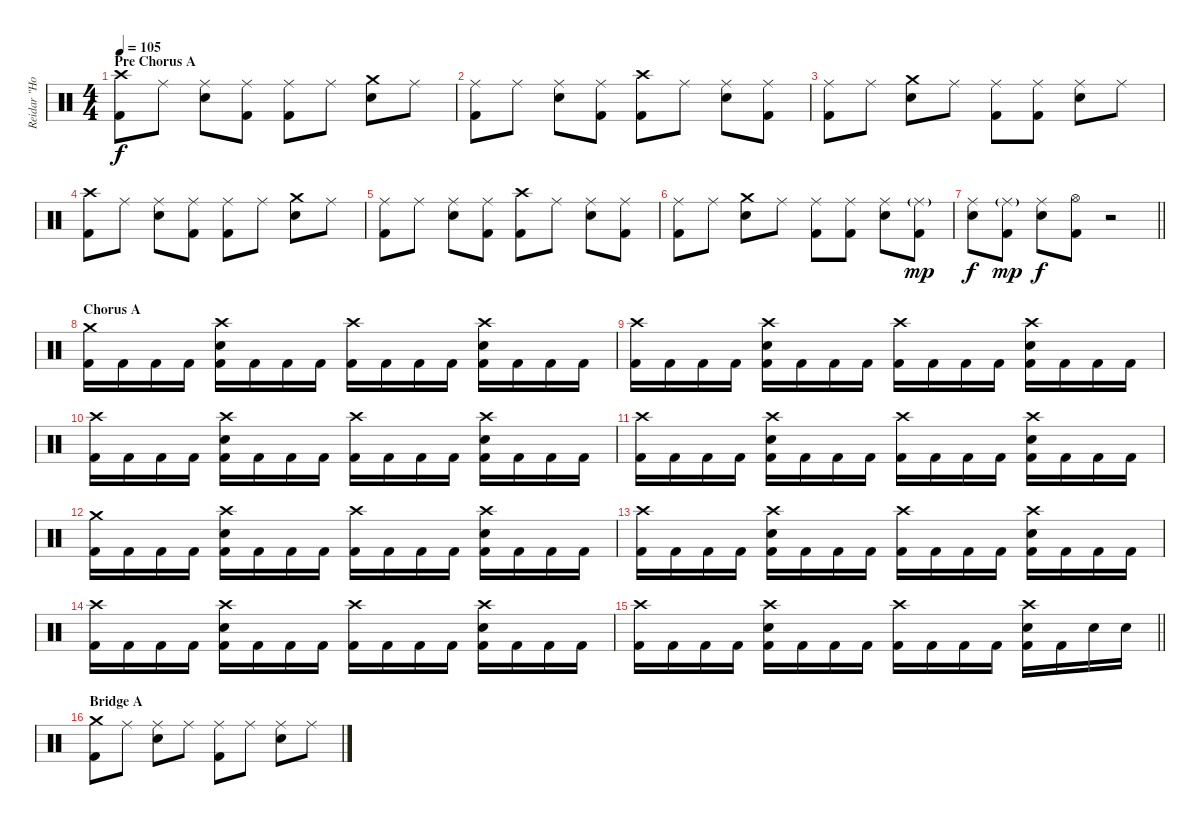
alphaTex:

\track ("Reidar \"Horgh\" Horghagen " "Reidar \"Ho") {instrument percussion}
\staff {score}
\articulation defaults
\ts (4 4)
\section ("" "Pre Chorus A")
\tempo 105
\clef neutral
\ks c
("Crash high (hit)" "Kick (hit) 2").8{dy f} "Ride (middle)".8 ("Ride (middle)" "Snare (hit) 2").8 ("Ride (middle)" "Kick (hit) 2").8 ("Ride (middle)" "Kick (hit) 2").8 "Ride (middle)".8 ("Crash medium (hit)" "Snare (hit) 2").8 "Ride (middle)".8 |
("Ride (middle)" "Kick (hit) 2").8 "Ride (middle)".8 ("Ride (middle)" "Snare (hit) 2").8 ("Ride (middle)" "Kick (hit) 2").8 ("Crash high (hit)" "Kick (hit) 2").8 "Ride (middle)".8 ("Ride (middle)" "Snare (hit) 2").8 ("Ride (middle)" "Kick (hit) 2").8 |
("Ride (middle)" "Kick (hit) 2").8 "Ride (middle)".8 ("Crash medium (hit)" "Snare (hit) 2").8 "Ride (middle)".8 ("Ride (middle)" "Kick (hit) 2").8 ("Ride (middle)" "Kick (hit) 2").8 ("Ride (middle)" "Snare (hit) 2").8 "Ride (middle)".8 |
("Crash high (hit)" "Kick (hit) 2").8 "Ride (middle)".8 ("Ride (middle)" "Snare (hit) 2").8 ("Ride (middle)" "Kick (hit) 2").8 ("Ride (middle)" "Kick (hit) 2").8 "Ride (middle)".8 ("Crash medium (hit)" "Snare (hit) 2").8 "Ride (middle)".8 |
("Ride (middle)" "Kick (hit) 2").8 "Ride (middle)".8 ("Ride (middle)" "Snare (hit) 2").8 ("Ride (middle)" "Kick (hit) 2").8 ("Crash high (hit)" "Kick (hit) 2").8 "Ride (middle)".8 ("Ride (middle)" "Snare (hit) 2").8 ("Ride (middle)" "Kick (hit) 2").8 |
("Ride (middle)" "Kick (hit) 2").8 "Ride (middle)".8 ("Crash medium (hit)" "Snare (hit) 2").8 "Ride (middle)".8 ("Ride (middle)" "Kick (hit) 2").8 ("Ride (middle)" "Kick (hit) 2").8 ("Ride (middle)" "Snare (hit) 2").8 ("Ride (middle)"{g} "Kick (hit) 2").8{dy mp} |
\barLineRight lightlight
("Ride (middle)" "Snare (hit) 2").8{dy f} ("Ride (middle)"{g} "Kick (hit) 2").8{dy mp} ("Ride (middle)" "Snare (hit) 2").8{dy f} ("Hi-Hat (open)" "Kick (hit) 2").8 r.2 |
\section ("" "Chorus A")
("Crash medium (hit)" "Kick (hit) 2").16 "Kick (hit) 2".16 "Kick (hit) 2".16 "Kick (hit) 2".16 ("Crash high (hit)" "Snare (hit) 2" "Kick (hit) 2").16 "Kick (hit) 2".16 "Kick (hit) 2".16 "Kick (hit) 2".16 ("Crash high (hit)" "Kick (hit) 2").16 "Kick (hit) 2".16 "Kick (hit) 2".16 "Kick (hit) 2".16 ("Crash high (hit)" "Snare (hit) 2" "Kick (hit) 2").16 "Kick (hit) 2".16 "Kick (hit) 2".16 "Kick (hit) 2".16 |
("Crash high (hit)" "Kick (hit) 2").16 "Kick (hit) 2".16 "Kick (hit) 2".16 "Kick (hit) 2".16 ("Crash high (hit)" "Snare (hit) 2" "Kick (hit) 2").16 "Kick (hit) 2".16 "Kick (hit) 2".16 "Kick (hit) 2".16 ("Crash high (hit)" "Kick (hit) 2").16 "Kick (hit) 2".16 "Kick (hit) 2".16 "Kick (hit) 2".16 ("Crash high (hit)" "Snare (hit) 2" "Kick (hit) 2").16 "Kick (hit) 2".16 "Kick (hit) 2".16 "Kick (hit) 2".16 |
("Crash high (hit)" "Kick (hit) 2").16 "Kick (hit) 2".16 "Kick (hit) 2".16 "Kick (hit) 2".16 ("Crash high (hit)" "Snare (hit) 2" "Kick (hit) 2").16 "Kick (hit) 2".16 "Kick (hit) 2".16 "Kick (hit) 2".16 ("Crash high (hit)" "Kick (hit) 2").16 "Kick (hit) 2".16 "Kick (hit) 2".16 "Kick (hit) 2".16 ("Crash high (hit)" "Snare (hit) 2" "Kick (hit) 2").16 "Kick (hit) 2".16 "Kick (hit) 2".16 "Kick (hit) 2".16 |
("Crash high (hit)" "Kick (hit) 2").16 "Kick (hit) 2".16 "Kick (hit) 2".16 "Kick (hit) 2".16 ("Crash high (hit)" "Snare (hit) 2" "Kick (hit) 2").16 "Kick (hit) 2".16 "Kick (hit) 2".16 "Kick (hit) 2".16 ("Crash high (hit)" "Kick (hit) 2").16 "Kick (hit) 2".16 "Kick (hit) 2".16 "Kick (hit) 2".16 ("Crash high (hit)" "Snare (hit) 2" "Kick (hit) 2").16 "Kick (hit) 2".16 "Kick (hit) 2".16 "Kick (hit) 2".16 |
("Crash medium (hit)" "Kick (hit) 2").16 "Kick (hit) 2".16 "Kick (hit) 2".16 "Kick (hit) 2".16 ("Crash high (hit)" "Snare (hit) 2" "Kick (hit) 2").16 "Kick (hit) 2".16 "Kick (hit) 2".16 "Kick (hit) 2".16 ("Crash high (hit)" "Kick (hit) 2").16 "Kick (hit) 2".16 "Kick (hit) 2".16 "Kick (hit) 2".16 ("Crash high (hit)" "Snare (hit) 2" "Kick (hit) 2").16 "Kick (hit) 2".16 "Kick (hit) 2".16 "Kick (hit) 2".16 |
("Crash high (hit)" "Kick (hit) 2").16 "Kick (hit) 2".16 "Kick (hit) 2".16 "Kick (hit) 2".16 ("Crash high (hit)" "Snare (hit) 2" "Kick (hit) 2").16 "Kick (hit) 2".16 "Kick (hit) 2".16 "Kick (hit) 2".16 ("Crash high (hit)" "Kick (hit) 2").16 "Kick (hit) 2".16 "Kick (hit) 2".16 "Kick (hit) 2".16 ("Crash high (hit)" "Snare (hit) 2" "Kick (hit) 2").16 "Kick (hit) 2".16 "Kick (hit) 2".16 "Kick (hit) 2".16 |
("Crash high (hit)" "Kick (hit) 2").16 "Kick (hit) 2".16 "Kick (hit) 2".16 "Kick (hit) 2".16 ("Crash high (hit)" "Snare (hit) 2" "Kick (hit) 2").16 "Kick (hit) 2".16 "Kick (hit) 2".16 "Kick (hit) 2".16 ("Crash high (hit)" "Kick (hit) 2").16 "Kick (hit) 2".16 "Kick (hit) 2".16 "Kick (hit) 2".16 ("Crash high (hit)" "Snare (hit) 2" "Kick (hit) 2").16 "Kick (hit) 2".16 "Kick (hit) 2".16 "Kick (hit) 2".16 |
\barLineRight lightlight
("Crash high (hit)" "Kick (hit) 2").16 "Kick (hit) 2".16 "Kick (hit) 2".16 "Kick (hit) 2".16 ("Crash high (hit)" "Snare (hit) 2" "Kick (hit) 2").16 "Kick (hit) 2".16 "Kick (hit) 2".16 "Kick (hit) 2".16 ("Crash high (hit)" "Kick (hit) 2").16 "Kick (hit) 2".16 "Kick (hit) 2".16 "Kick (hit) 2".16 ("Crash high (hit)" "Snare (hit) 2" "Kick (hit) 2").16 "Kick (hit) 2".16 "Snare (hit) 2".16 "Snare (hit) 2".16 |
\section ("" "Bridge A")
("Crash medium (hit)" "Kick (hit) 2").8 "Ride (middle)".8 ("Ride (middle)" "Snare (hit) 2").8 "Ride (middle)".8 ("Ride (middle)" "Kick (hit) 2").8 "Ride (middle)".8 ("Ride (middle)" "Snare (hit) 2").8 "Ride (middle)".8
